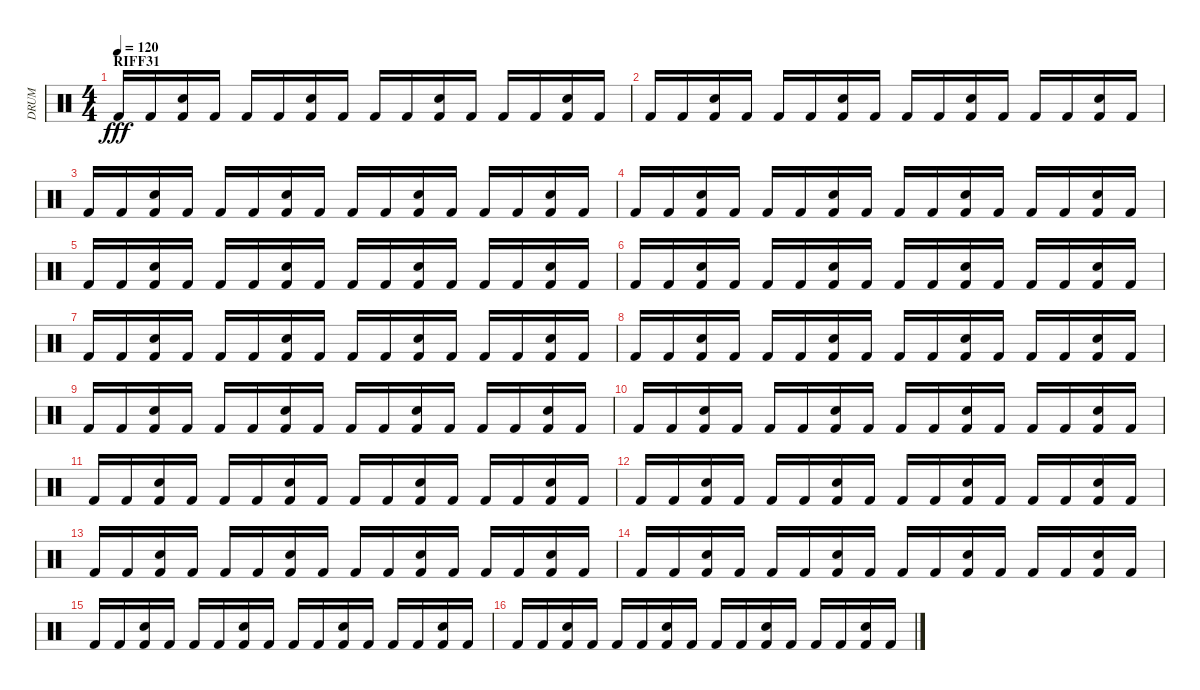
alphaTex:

\track ("DRUM" "DRUM") {instrument percussion}
\staff {score}
\articulation defaults
\ts (4 4)
\section ("" "RIFF31")
\tempo 120
\clef neutral
\ks c "Kick (hit) 2".16{dy fff} "Kick (hit) 2".16
("Kick (hit) 2" "Electric Snare (hit)").16 "Kick (hit) 2".16 "Kick (hit) 2".16 "Kick (hit) 2".16 ("Kick (hit) 2" "Electric Snare (hit)").16 "Kick (hit) 2".16 "Kick (hit) 2".16 "Kick (hit) 2".16 ("Kick (hit) 2" "Electric Snare (hit)").16 "Kick (hit) 2".16 "Kick (hit) 2".16 "Kick (hit) 2".16 ("Kick (hit) 2" "Electric Snare (hit)").16 "Kick (hit) 2".16 |
"Kick (hit) 2".16 "Kick (hit) 2".16 ("Kick (hit) 2" "Electric Snare (hit)").16 "Kick (hit) 2".16 "Kick (hit) 2".16 "Kick (hit) 2".16 ("Kick (hit) 2" "Electric Snare (hit)").16 "Kick (hit) 2".16 "Kick (hit) 2".16 "Kick (hit) 2".16 ("Kick (hit) 2" "Electric Snare (hit)").16 "Kick (hit) 2".16 "Kick (hit) 2".16 "Kick (hit) 2".16 ("Kick (hit) 2" "Electric Snare (hit)").16 "Kick (hit) 2".16 |
"Kick (hit) 2".16 "Kick (hit) 2".16 ("Kick (hit) 2" "Electric Snare (hit)").16 "Kick (hit) 2".16 "Kick (hit) 2".16 "Kick (hit) 2".16 ("Kick (hit) 2" "Electric Snare (hit)").16 "Kick (hit) 2".16 "Kick (hit) 2".16 "Kick (hit) 2".16 ("Kick (hit) 2" "Electric Snare (hit)").16 "Kick (hit) 2".16 "Kick (hit) 2".16 "Kick (hit) 2".16 ("Kick (hit) 2" "Electric Snare (hit)").16 "Kick (hit) 2".16 |
"Kick (hit) 2".16 "Kick (hit) 2".16 ("Kick (hit) 2" "Electric Snare (hit)").16 "Kick (hit) 2".16 "Kick (hit) 2".16 "Kick (hit) 2".16 ("Kick (hit) 2" "Electric Snare (hit)").16 "Kick (hit) 2".16 "Kick (hit) 2".16 "Kick (hit) 2".16 ("Kick (hit) 2" "Electric Snare (hit)").16 "Kick (hit) 2".16 "Kick (hit) 2".16 "Kick (hit) 2".16 ("Kick (hit) 2" "Electric Snare (hit)").16 "Kick (hit) 2".16 |
"Kick (hit) 2".16 "Kick (hit) 2".16 ("Kick (hit) 2" "Electric Snare (hit)").16 "Kick (hit) 2".16 "Kick (hit) 2".16 "Kick (hit) 2".16 ("Kick (hit) 2" "Electric Snare (hit)").16 "Kick (hit) 2".16 "Kick (hit) 2".16 "Kick (hit) 2".16 ("Kick (hit) 2" "Electric Snare (hit)").16 "Kick (hit) 2".16 "Kick (hit) 2".16 "Kick (hit) 2".16 ("Kick (hit) 2" "Electric Snare (hit)").16 "Kick (hit) 2".16 |
"Kick (hit) 2".16 "Kick (hit) 2".16 ("Kick (hit) 2" "Electric Snare (hit)").16 "Kick (hit) 2".16 "Kick (hit) 2".16 "Kick (hit) 2".16 ("Kick (hit) 2" "Electric Snare (hit)").16 "Kick (hit) 2".16 "Kick (hit) 2".16 "Kick (hit) 2".16 ("Kick (hit) 2" "Electric Snare (hit)").16 "Kick (hit) 2".16 "Kick (hit) 2".16 "Kick (hit) 2".16 ("Kick (hit) 2" "Electric Snare (hit)").16 "Kick (hit) 2".16 |
"Kick (hit) 2".16 "Kick (hit) 2".16 ("Kick (hit) 2" "Electric Snare (hit)").16 "Kick (hit) 2".16 "Kick (hit) 2".16 "Kick (hit) 2".16 ("Kick (hit) 2" "Electric Snare (hit)").16 "Kick (hit) 2".16 "Kick (hit) 2".16 "Kick (hit) 2".16 ("Kick (hit) 2" "Electric Snare (hit)").16 "Kick (hit) 2".16 "Kick (hit) 2".16 "Kick (hit) 2".16 ("Kick (hit) 2" "Electric Snare (hit)").16 "Kick (hit) 2".16 |
"Kick (hit) 2".16 "Kick (hit) 2".16 ("Kick (hit) 2" "Electric Snare (hit)").16 "Kick (hit) 2".16 "Kick (hit) 2".16 "Kick (hit) 2".16 ("Kick (hit) 2" "Electric Snare (hit)").16 "Kick (hit) 2".16 "Kick (hit) 2".16 "Kick (hit) 2".16 ("Kick (hit) 2" "Electric Snare (hit)").16 "Kick (hit) 2".16 "Kick (hit) 2".16 "Kick (hit) 2".16 ("Kick (hit) 2" "Electric Snare (hit)").16 "Kick (hit) 2".16 |
"Kick (hit) 2".16 "Kick (hit) 2".16 ("Kick (hit) 2" "Electric Snare (hit)").16 "Kick (hit) 2".16 "Kick (hit) 2".16 "Kick (hit) 2".16 ("Kick (hit) 2" "Electric Snare (hit)").16 "Kick (hit) 2".16 "Kick (hit) 2".16 "Kick (hit) 2".16 ("Kick (hit) 2" "Electric Snare (hit)").16 "Kick (hit) 2".16 "Kick (hit) 2".16 "Kick (hit) 2".16 ("Kick (hit) 2" "Electric Snare (hit)").16 "Kick (hit) 2".16 |
"Kick (hit) 2".16 "Kick (hit) 2".16 ("Kick (hit) 2" "Electric Snare (hit)").16 "Kick (hit) 2".16 "Kick (hit) 2".16 "Kick (hit) 2".16 ("Kick (hit) 2" "Electric Snare (hit)").16 "Kick (hit) 2".16 "Kick (hit) 2".16 "Kick (hit) 2".16 ("Kick (hit) 2" "Electric Snare (hit)").16 "Kick (hit) 2".16 "Kick (hit) 2".16 "Kick (hit) 2".16 ("Kick (hit) 2" "Electric Snare (hit)").16 "Kick (hit) 2".16 |
"Kick (hit) 2".16 "Kick (hit) 2".16 ("Kick (hit) 2" "Electric Snare (hit)").16 "Kick (hit) 2".16 "Kick (hit) 2".16 "Kick (hit) 2".16 ("Kick (hit) 2" "Electric Snare (hit)").16 "Kick (hit) 2".16 "Kick (hit) 2".16 "Kick (hit) 2".16 ("Kick (hit) 2" "Electric Snare (hit)").16 "Kick (hit) 2".16 "Kick (hit) 2".16 "Kick (hit) 2".16 ("Kick (hit) 2" "Electric Snare (hit)").16 "Kick (hit) 2".16 |
"Kick (hit) 2".16 "Kick (hit) 2".16 ("Kick (hit) 2" "Electric Snare (hit)").16 "Kick (hit) 2".16 "Kick (hit) 2".16 "Kick (hit) 2".16 ("Kick (hit) 2" "Electric Snare (hit)").16 "Kick (hit) 2".16 "Kick (hit) 2".16 "Kick (hit) 2".16 ("Kick (hit) 2" "Electric Snare (hit)").16 "Kick (hit) 2".16 "Kick (hit) 2".16 "Kick (hit) 2".16 ("Kick (hit) 2" "Electric Snare (hit)").16 "Kick (hit) 2".16 |
"Kick (hit) 2".16 "Kick (hit) 2".16 ("Kick (hit) 2" "Electric Snare (hit)").16 "Kick (hit) 2".16 "Kick (hit) 2".16 "Kick (hit) 2".16 ("Kick (hit) 2" "Electric Snare (hit)").16 "Kick (hit) 2".16 "Kick (hit) 2".16 "Kick (hit) 2".16 ("Kick (hit) 2" "Electric Snare (hit)").16 "Kick (hit) 2".16 "Kick (hit) 2".16 "Kick (hit) 2".16 ("Kick (hit) 2" "Electric Snare (hit)").16 "Kick (hit) 2".16 |
"Kick (hit) 2".16 "Kick (hit) 2".16 ("Kick (hit) 2" "Electric Snare (hit)").16 "Kick (hit) 2".16 "Kick (hit) 2".16 "Kick (hit) 2".16 ("Kick (hit) 2" "Electric Snare (hit)").16 "Kick (hit) 2".16 "Kick (hit) 2".16 "Kick (hit) 2".16 ("Kick (hit) 2" "Electric Snare (hit)").16 "Kick (hit) 2".16 "Kick (hit) 2".16 "Kick (hit) 2".16 ("Kick (hit) 2" "Electric Snare (hit)").16 "Kick (hit) 2".16 |
"Kick (hit) 2".16 "Kick (hit) 2".16 ("Kick (hit) 2" "Electric Snare (hit)").16 "Kick (hit) 2".16 "Kick (hit) 2".16 "Kick (hit) 2".16 ("Kick (hit) 2" "Electric Snare (hit)").16 "Kick (hit) 2".16 "Kick (hit) 2".16 "Kick (hit) 2".16 ("Kick (hit) 2" "Electric Snare (hit)").16 "Kick (hit) 2".16 "Kick (hit) 2".16 "Kick (hit) 2".16 ("Kick (hit) 2" "Electric Snare (hit)").16 "Kick (hit) 2".16 |
"Kick (hit) 2".16 "Kick (hit) 2".16 ("Kick (hit) 2" "Electric Snare (hit)").16 "Kick (hit) 2".16 "Kick (hit) 2".16 "Kick (hit) 2".16 ("Kick (hit) 2" "Electric Snare (hit)").16 "Kick (hit) 2".16 "Kick (hit) 2".16 "Kick (hit) 2".16 ("Kick (hit) 2" "Electric Snare (hit)").16 "Kick (hit) 2".16 "Kick (hit) 2".16 "Kick (hit) 2".16 ("Kick (hit) 2" "Electric Snare (hit)").16 "Kick (hit) 2".16
